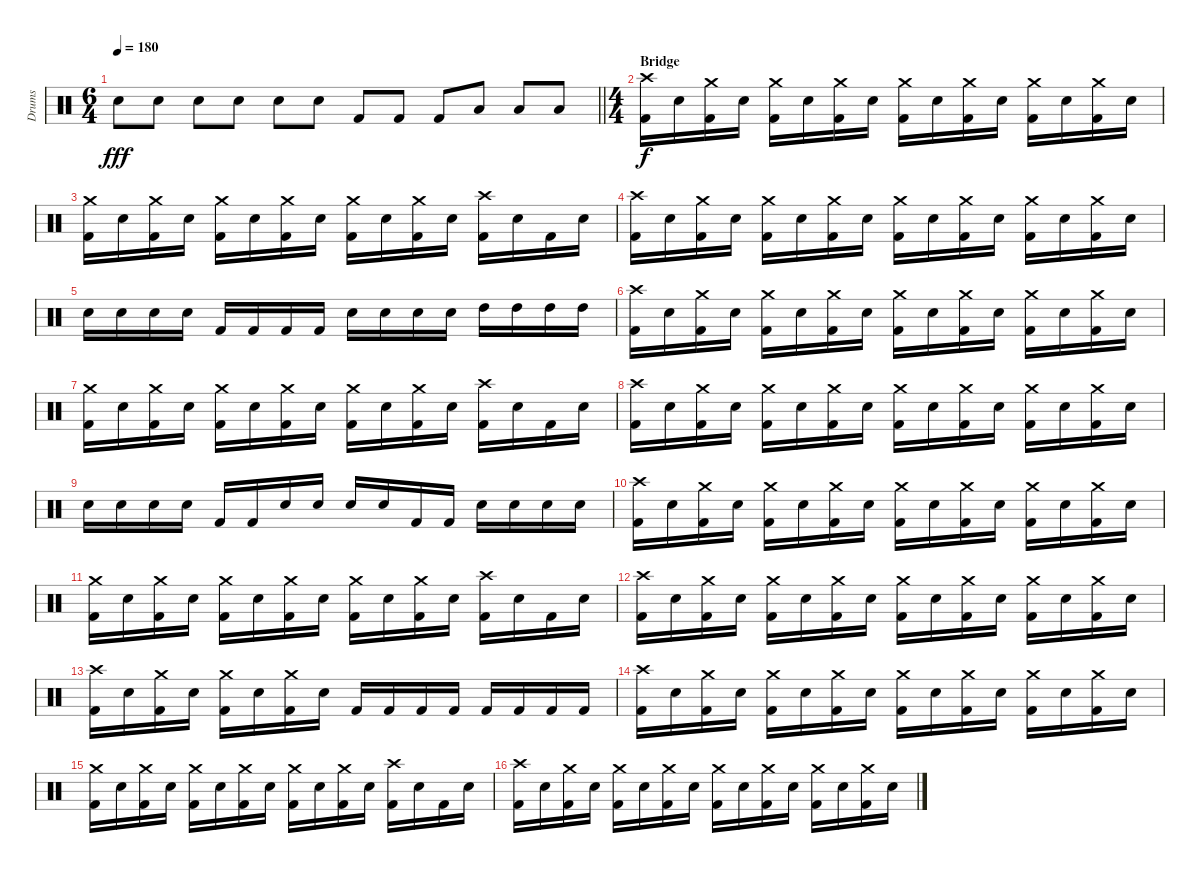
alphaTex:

\track ("Drums" "Drums") {instrument percussion}
\staff {score}
\articulation defaults
\ts (6 4)
\tempo 180
\clef neutral
\barLineRight lightlight
\ks c "Electric Snare (hit)".8{dy fff} "Electric Snare (hit)".8 "Electric Snare (hit)".8 "Electric Snare (hit)".8 "Electric Snare (hit)".8 "Electric Snare (hit)".8 "Kick (hit) 2".8 "Kick (hit) 2".8 "Kick (hit) 2".8 "Low Tom (hit)".8 "Low Tom (hit)".8 "Low Tom (hit)".8
|
\ts (4 4)
\section ("" "Bridge")
("Crash high (hit)" "Kick (hit) 2").16{dy f} "Electric Snare (hit)".16 ("Crash medium (hit)" "Kick (hit) 2").16 "Electric Snare (hit)".16 ("Crash medium (hit)" "Kick (hit) 2").16 "Electric Snare (hit)".16 ("Crash medium (hit)" "Kick (hit) 2").16 "Electric Snare (hit)".16 ("Crash medium (hit)" "Kick (hit) 2").16 "Electric Snare (hit)".16 ("Crash medium (hit)" "Kick (hit) 2").16 "Electric Snare (hit)".16 ("Crash medium (hit)" "Kick (hit) 2").16 "Electric Snare (hit)".16 ("Crash medium (hit)" "Kick (hit) 2").16 "Electric Snare (hit)".16 |
("Crash medium (hit)" "Kick (hit) 2").16 "Electric Snare (hit)".16 ("Crash medium (hit)" "Kick (hit) 2").16 "Electric Snare (hit)".16 ("Crash medium (hit)" "Kick (hit) 2").16 "Electric Snare (hit)".16 ("Crash medium (hit)" "Kick (hit) 2").16 "Electric Snare (hit)".16 ("Crash medium (hit)" "Kick (hit) 2").16 "Electric Snare (hit)".16 ("Crash medium (hit)" "Kick (hit) 2").16 "Electric Snare (hit)".16 ("Crash high (hit)" "Kick (hit) 2").16 "Electric Snare (hit)".16 "Kick (hit) 2".16 "Electric Snare (hit)".16 |
("Crash high (hit)" "Kick (hit) 2").16 "Electric Snare (hit)".16 ("Crash medium (hit)" "Kick (hit) 2").16 "Electric Snare (hit)".16 ("Crash medium (hit)" "Kick (hit) 2").16 "Electric Snare (hit)".16 ("Crash medium (hit)" "Kick (hit) 2").16 "Electric Snare (hit)".16 ("Crash medium (hit)" "Kick (hit) 2").16 "Electric Snare (hit)".16 ("Crash medium (hit)" "Kick (hit) 2").16 "Electric Snare (hit)".16 ("Crash medium (hit)" "Kick (hit) 2").16 "Electric Snare (hit)".16 ("Crash medium (hit)" "Kick (hit) 2").16 "Electric Snare (hit)".16 |
"Electric Snare (hit)".16 "Electric Snare (hit)".16 "Electric Snare (hit)".16 "Electric Snare (hit)".16 "Kick (hit) 2".16 "Kick (hit) 2".16 "Kick (hit) 2".16 "Kick (hit) 2".16 "Electric Snare (hit)".16 "Electric Snare (hit)".16 "Electric Snare (hit)".16 "Electric Snare (hit)".16 "High Tom (hit)".16 "High Tom (hit)".16 "High Tom (hit)".16 "High Tom (hit)".16 |
("Crash high (hit)" "Kick (hit) 2").16 "Electric Snare (hit)".16 ("Crash medium (hit)" "Kick (hit) 2").16 "Electric Snare (hit)".16 ("Crash medium (hit)" "Kick (hit) 2").16 "Electric Snare (hit)".16 ("Crash medium (hit)" "Kick (hit) 2").16 "Electric Snare (hit)".16 ("Crash medium (hit)" "Kick (hit) 2").16 "Electric Snare (hit)".16 ("Crash medium (hit)" "Kick (hit) 2").16 "Electric Snare (hit)".16 ("Crash medium (hit)" "Kick (hit) 2").16 "Electric Snare (hit)".16 ("Crash medium (hit)" "Kick (hit) 2").16 "Electric Snare (hit)".16 |
("Crash medium (hit)" "Kick (hit) 2").16 "Electric Snare (hit)".16 ("Crash medium (hit)" "Kick (hit) 2").16 "Electric Snare (hit)".16 ("Crash medium (hit)" "Kick (hit) 2").16 "Electric Snare (hit)".16 ("Crash medium (hit)" "Kick (hit) 2").16 "Electric Snare (hit)".16 ("Crash medium (hit)" "Kick (hit) 2").16 "Electric Snare (hit)".16 ("Crash medium (hit)" "Kick (hit) 2").16 "Electric Snare (hit)".16 ("Crash high (hit)" "Kick (hit) 2").16 "Electric Snare (hit)".16 "Kick (hit) 2".16 "Electric Snare (hit)".16 |
("Crash high (hit)" "Kick (hit) 2").16 "Electric Snare (hit)".16 ("Crash medium (hit)" "Kick (hit) 2").16 "Electric Snare (hit)".16 ("Crash medium (hit)" "Kick (hit) 2").16 "Electric Snare (hit)".16 ("Crash medium (hit)" "Kick (hit) 2").16 "Electric Snare (hit)".16 ("Crash medium (hit)" "Kick (hit) 2").16 "Electric Snare (hit)".16 ("Crash medium (hit)" "Kick (hit) 2").16 "Electric Snare (hit)".16 ("Crash medium (hit)" "Kick (hit) 2").16 "Electric Snare (hit)".16 ("Crash medium (hit)" "Kick (hit) 2").16 "Electric Snare (hit)".16 |
"Electric Snare (hit)".16 "Electric Snare (hit)".16 "Electric Snare (hit)".16 "Electric Snare (hit)".16 "Kick (hit) 2".16 "Kick (hit) 2".16 "Electric Snare (hit)".16 "Electric Snare (hit)".16 "Electric Snare (hit)".16 "Electric Snare (hit)".16 "Kick (hit) 2".16 "Kick (hit) 2".16 "Electric Snare (hit)".16 "Electric Snare (hit)".16 "Electric Snare (hit)".16 "Electric Snare (hit)".16 |
("Crash high (hit)" "Kick (hit) 2").16 "Electric Snare (hit)".16 ("Crash medium (hit)" "Kick (hit) 2").16 "Electric Snare (hit)".16 ("Crash medium (hit)" "Kick (hit) 2").16 "Electric Snare (hit)".16 ("Crash medium (hit)" "Kick (hit) 2").16 "Electric Snare (hit)".16 ("Crash medium (hit)" "Kick (hit) 2").16 "Electric Snare (hit)".16 ("Crash medium (hit)" "Kick (hit) 2").16 "Electric Snare (hit)".16 ("Crash medium (hit)" "Kick (hit) 2").16 "Electric Snare (hit)".16 ("Crash medium (hit)" "Kick (hit) 2").16 "Electric Snare (hit)".16 |
("Crash medium (hit)" "Kick (hit) 2").16 "Electric Snare (hit)".16 ("Crash medium (hit)" "Kick (hit) 2").16 "Electric Snare (hit)".16 ("Crash medium (hit)" "Kick (hit) 2").16 "Electric Snare (hit)".16 ("Crash medium (hit)" "Kick (hit) 2").16 "Electric Snare (hit)".16 ("Crash medium (hit)" "Kick (hit) 2").16 "Electric Snare (hit)".16 ("Crash medium (hit)" "Kick (hit) 2").16 "Electric Snare (hit)".16 ("Crash high (hit)" "Kick (hit) 2").16 "Electric Snare (hit)".16 "Kick (hit) 2".16 "Electric Snare (hit)".16 |
("Crash high (hit)" "Kick (hit) 2").16 "Electric Snare (hit)".16 ("Crash medium (hit)" "Kick (hit) 2").16 "Electric Snare (hit)".16 ("Crash medium (hit)" "Kick (hit) 2").16 "Electric Snare (hit)".16 ("Crash medium (hit)" "Kick (hit) 2").16 "Electric Snare (hit)".16 ("Crash medium (hit)" "Kick (hit) 2").16 "Electric Snare (hit)".16 ("Crash medium (hit)" "Kick (hit) 2").16 "Electric Snare (hit)".16 ("Crash medium (hit)" "Kick (hit) 2").16 "Electric Snare (hit)".16 ("Crash medium (hit)" "Kick (hit) 2").16 "Electric Snare (hit)".16 |
("Crash high (hit)" "Kick (hit) 2").16 "Electric Snare (hit)".16 ("Crash medium (hit)" "Kick (hit) 2").16 "Electric Snare (hit)".16 ("Crash medium (hit)" "Kick (hit) 2").16 "Electric Snare (hit)".16 ("Crash medium (hit)" "Kick (hit) 2").16 "Electric Snare (hit)".16 "Kick (hit) 2".16 "Kick (hit) 2".16 "Kick (hit) 2".16 "Kick (hit) 2".16 "Kick (hit) 2".16 "Kick (hit) 2".16 "Kick (hit) 2".16 "Kick (hit) 2".16 |
("Crash high (hit)" "Kick (hit) 2").16 "Electric Snare (hit)".16 ("Crash medium (hit)" "Kick (hit) 2").16 "Electric Snare (hit)".16 ("Crash medium (hit)" "Kick (hit) 2").16 "Electric Snare (hit)".16 ("Crash medium (hit)" "Kick (hit) 2").16 "Electric Snare (hit)".16 ("Crash medium (hit)" "Kick (hit) 2").16 "Electric Snare (hit)".16 ("Crash medium (hit)" "Kick (hit) 2").16 "Electric Snare (hit)".16 ("Crash medium (hit)" "Kick (hit) 2").16 "Electric Snare (hit)".16 ("Crash medium (hit)" "Kick (hit) 2").16 "Electric Snare (hit)".16 |
("Crash medium (hit)" "Kick (hit) 2").16 "Electric Snare (hit)".16 ("Crash medium (hit)" "Kick (hit) 2").16 "Electric Snare (hit)".16 ("Crash medium (hit)" "Kick (hit) 2").16 "Electric Snare (hit)".16 ("Crash medium (hit)" "Kick (hit) 2").16 "Electric Snare (hit)".16 ("Crash medium (hit)" "Kick (hit) 2").16 "Electric Snare (hit)".16 ("Crash medium (hit)" "Kick (hit) 2").16 "Electric Snare (hit)".16 ("Crash high (hit)" "Kick (hit) 2").16 "Electric Snare (hit)".16 "Kick (hit) 2".16 "Electric Snare (hit)".16 |
("Crash high (hit)" "Kick (hit) 2").16 "Electric Snare (hit)".16 ("Crash medium (hit)" "Kick (hit) 2").16 "Electric Snare (hit)".16 ("Crash medium (hit)" "Kick (hit) 2").16 "Electric Snare (hit)".16 ("Crash medium (hit)" "Kick (hit) 2").16 "Electric Snare (hit)".16 ("Crash medium (hit)" "Kick (hit) 2").16 "Electric Snare (hit)".16 ("Crash medium (hit)" "Kick (hit) 2").16 "Electric Snare (hit)".16 ("Crash medium (hit)" "Kick (hit) 2").16 "Electric Snare (hit)".16 ("Crash medium (hit)" "Kick (hit) 2").16 "Electric Snare (hit)".16
